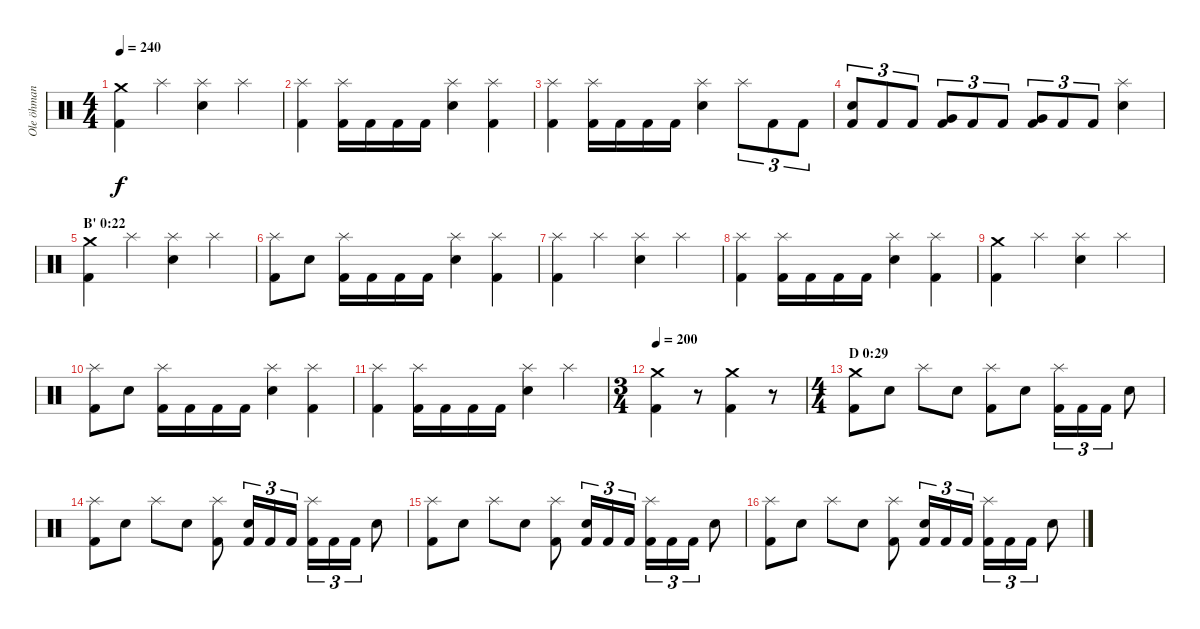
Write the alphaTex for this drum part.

\track ("Ole öhman" "Ole öhman") {instrument percussion}
\staff {score}
\articulation defaults
\ts (4 4)
\tempo 240
\clef neutral
\ks c
("Crash medium (hit)" "Kick (hit) 2").4{dy f} "Splash (hit)".4 ("Splash (hit)" "Electric Snare (hit)").4 "Splash (hit)".4 |
("Splash (hit)" "Kick (hit) 2").4 ("Splash (hit)" "Kick (hit) 2").16 "Kick (hit) 2".16 "Kick (hit) 2".16 "Kick (hit) 2".16 ("Splash (hit)" "Electric Snare (hit)").4 ("Splash (hit)" "Kick (hit) 2").4 |
("Splash (hit)" "Kick (hit) 2").4 ("Splash (hit)" "Kick (hit) 2").16 "Kick (hit) 2".16 "Kick (hit) 2".16 "Kick (hit) 2".16 ("Splash (hit)" "Electric Snare (hit)").4 "Splash (hit)".8{tu (3 2)} "Kick (hit) 2".8{tu (3 2)} "Kick (hit) 2".8{tu (3 2)} |
("Electric Snare (hit)" "Kick (hit) 2").8{tu (3 2)} "Kick (hit) 2".8{tu (3 2)} "Kick (hit) 2".8{tu (3 2)} ("Very Low Tom (hit)" "Kick (hit) 2").8{tu (3 2)} "Kick (hit) 2".8{tu (3 2)} "Kick (hit) 2".8{tu (3 2)} ("Very Low Tom (hit)" "Kick (hit) 2").8{tu (3 2)} "Kick (hit) 2".8{tu (3 2)} "Kick (hit) 2".8{tu (3 2)} ("Splash (hit)" "Electric Snare (hit)").4 |
\section ("" "B' 0:22")
("Crash medium (hit)" "Kick (hit) 2").4 "Splash (hit)".4 ("Splash (hit)" "Electric Snare (hit)").4 "Splash (hit)".4 |
("Splash (hit)" "Kick (hit) 2").8 "Electric Snare (hit)".8 ("Splash (hit)" "Kick (hit) 2").16 "Kick (hit) 2".16 "Kick (hit) 2".16 "Kick (hit) 2".16 ("Splash (hit)" "Electric Snare (hit)").4 ("Splash (hit)" "Kick (hit) 2").4 |
("Splash (hit)" "Kick (hit) 2").4 "Splash (hit)".4 ("Splash (hit)" "Electric Snare (hit)").4 "Splash (hit)".4 |
("Splash (hit)" "Kick (hit) 2").4 ("Splash (hit)" "Kick (hit) 2").16 "Kick (hit) 2".16 "Kick (hit) 2".16 "Kick (hit) 2".16 ("Splash (hit)" "Electric Snare (hit)").4 ("Splash (hit)" "Kick (hit) 2").4 |
("Crash medium (hit)" "Kick (hit) 2").4 "Splash (hit)".4 ("Splash (hit)" "Electric Snare (hit)").4 "Splash (hit)".4 |
("Splash (hit)" "Kick (hit) 2").8 "Electric Snare (hit)".8 ("Splash (hit)" "Kick (hit) 2").16 "Kick (hit) 2".16 "Kick (hit) 2".16 "Kick (hit) 2".16 ("Splash (hit)" "Electric Snare (hit)").4 ("Splash (hit)" "Kick (hit) 2").4 |
("Splash (hit)" "Kick (hit) 2").4 ("Splash (hit)" "Kick (hit) 2").16 "Kick (hit) 2".16 "Kick (hit) 2".16 "Kick (hit) 2".16 ("Splash (hit)" "Electric Snare (hit)").4 "Splash (hit)".4 |
\ts (3 4)
\tempo 200
("Crash medium (hit)" "Kick (hit) 2").4 r.8 ("Crash medium (hit)" "Kick (hit) 2").4 r.8 |
\ts (4 4)
\section ("" "D 0:29")
("Crash medium (hit)" "Kick (hit) 2").8 "Electric Snare (hit)".8 "Splash (hit)".8 "Electric Snare (hit)".8 ("Splash (hit)" "Kick (hit) 2").8 "Electric Snare (hit)".8 ("Splash (hit)" "Kick (hit) 2").16{tu (3 2)} "Kick (hit) 2".16{tu (3 2)} "Kick (hit) 2".16{tu (3 2)} "Electric Snare (hit)".8 |
("Splash (hit)" "Kick (hit) 2").8 "Electric Snare (hit)".8 "Splash (hit)".8 "Electric Snare (hit)".8 ("Splash (hit)" "Kick (hit) 2").8 ("Electric Snare (hit)" "Kick (hit) 2").16{tu (3 2)} "Kick (hit) 2".16{tu (3 2)} "Kick (hit) 2".16{tu (3 2)} ("Splash (hit)" "Kick (hit) 2").16{tu (3 2)} "Kick (hit) 2".16{tu (3 2)} "Kick (hit) 2".16{tu (3 2)} "Electric Snare (hit)".8 |
("Splash (hit)" "Kick (hit) 2").8 "Electric Snare (hit)".8 "Splash (hit)".8 "Electric Snare (hit)".8 ("Splash (hit)" "Kick (hit) 2").8 ("Electric Snare (hit)" "Kick (hit) 2").16{tu (3 2)} "Kick (hit) 2".16{tu (3 2)} "Kick (hit) 2".16{tu (3 2)} ("Splash (hit)" "Kick (hit) 2").16{tu (3 2)} "Kick (hit) 2".16{tu (3 2)} "Kick (hit) 2".16{tu (3 2)} "Electric Snare (hit)".8 |
("Splash (hit)" "Kick (hit) 2").8 "Electric Snare (hit)".8 "Splash (hit)".8 "Electric Snare (hit)".8 ("Splash (hit)" "Kick (hit) 2").8 ("Electric Snare (hit)" "Kick (hit) 2").16{tu (3 2)} "Kick (hit) 2".16{tu (3 2)} "Kick (hit) 2".16{tu (3 2)} ("Splash (hit)" "Kick (hit) 2").16{tu (3 2)} "Kick (hit) 2".16{tu (3 2)} "Kick (hit) 2".16{tu (3 2)} "Electric Snare (hit)".8
